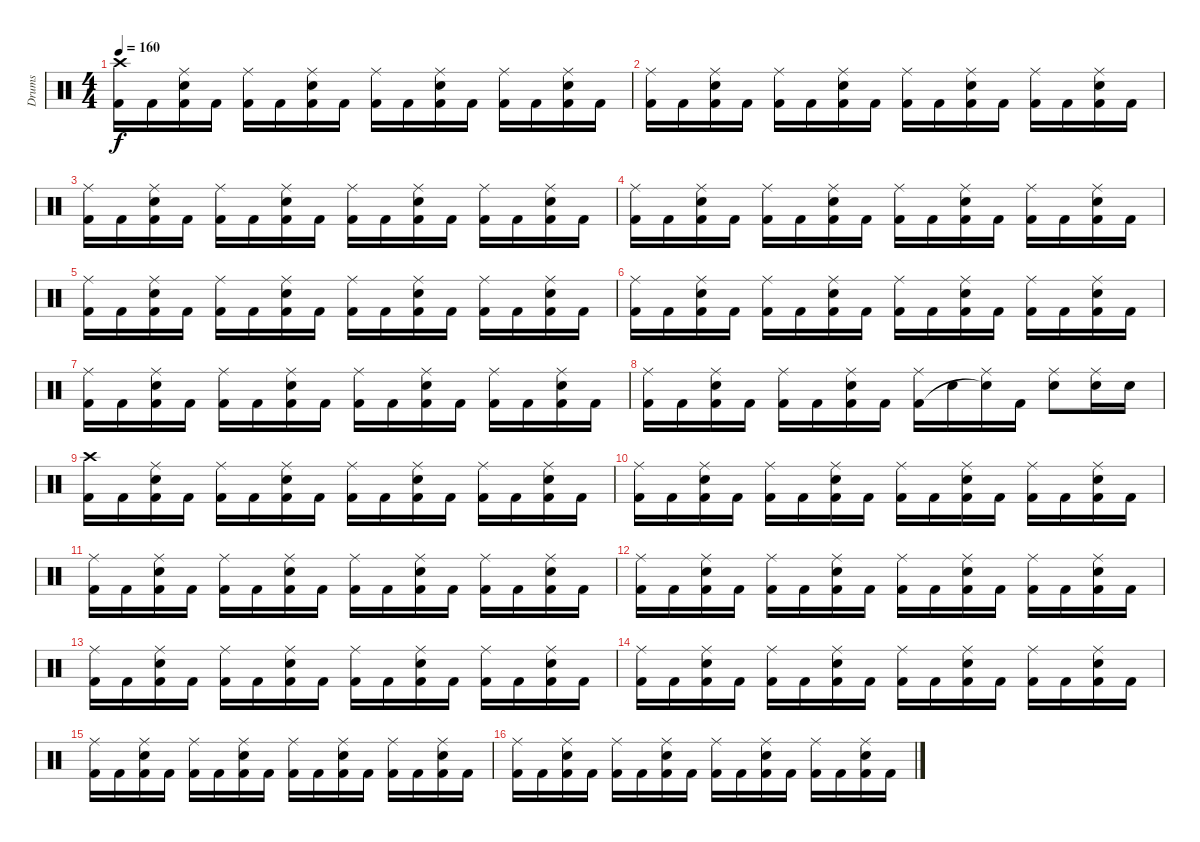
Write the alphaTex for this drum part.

\track ("Drums" "Drums") {instrument percussion}
\staff {score}
\articulation defaults
\ts (4 4)
\tempo 160
\clef neutral
\ks c
("Crash high (hit)" "Kick (hit) 2").16{dy f} "Kick (hit) 2".16 ("Ride (middle)" "Electric Snare (hit)" "Kick (hit) 2").16 "Kick (hit) 2".16 ("Ride (middle)" "Kick (hit) 2").16 "Kick (hit) 2".16 ("Ride (middle)" "Electric Snare (hit)" "Kick (hit) 2").16 "Kick (hit) 2".16 ("Ride (middle)" "Kick (hit) 2").16 "Kick (hit) 2".16 ("Ride (middle)" "Electric Snare (hit)" "Kick (hit) 2").16 "Kick (hit) 2".16 ("Ride (middle)" "Kick (hit) 2").16 "Kick (hit) 2".16 ("Ride (middle)" "Electric Snare (hit)" "Kick (hit) 2").16 "Kick (hit) 2".16 |
("Ride (middle)" "Kick (hit) 2").16 "Kick (hit) 2".16 ("Ride (middle)" "Electric Snare (hit)" "Kick (hit) 2").16 "Kick (hit) 2".16 ("Ride (middle)" "Kick (hit) 2").16 "Kick (hit) 2".16 ("Ride (middle)" "Electric Snare (hit)" "Kick (hit) 2").16 "Kick (hit) 2".16 ("Ride (middle)" "Kick (hit) 2").16 "Kick (hit) 2".16 ("Ride (middle)" "Electric Snare (hit)" "Kick (hit) 2").16 "Kick (hit) 2".16 ("Ride (middle)" "Kick (hit) 2").16 "Kick (hit) 2".16 ("Ride (middle)" "Electric Snare (hit)" "Kick (hit) 2").16 "Kick (hit) 2".16 |
("Ride (middle)" "Kick (hit) 2").16 "Kick (hit) 2".16 ("Ride (middle)" "Electric Snare (hit)" "Kick (hit) 2").16 "Kick (hit) 2".16 ("Ride (middle)" "Kick (hit) 2").16 "Kick (hit) 2".16 ("Ride (middle)" "Electric Snare (hit)" "Kick (hit) 2").16 "Kick (hit) 2".16 ("Ride (middle)" "Kick (hit) 2").16 "Kick (hit) 2".16 ("Ride (middle)" "Electric Snare (hit)" "Kick (hit) 2").16 "Kick (hit) 2".16 ("Ride (middle)" "Kick (hit) 2").16 "Kick (hit) 2".16 ("Ride (middle)" "Electric Snare (hit)" "Kick (hit) 2").16 "Kick (hit) 2".16 |
("Ride (middle)" "Kick (hit) 2").16 "Kick (hit) 2".16 ("Ride (middle)" "Electric Snare (hit)" "Kick (hit) 2").16 "Kick (hit) 2".16 ("Ride (middle)" "Kick (hit) 2").16 "Kick (hit) 2".16 ("Ride (middle)" "Electric Snare (hit)" "Kick (hit) 2").16 "Kick (hit) 2".16 ("Ride (middle)" "Kick (hit) 2").16 "Kick (hit) 2".16 ("Ride (middle)" "Electric Snare (hit)" "Kick (hit) 2").16 "Kick (hit) 2".16 ("Ride (middle)" "Kick (hit) 2").16 "Kick (hit) 2".16 ("Ride (middle)" "Electric Snare (hit)" "Kick (hit) 2").16 "Kick (hit) 2".16 |
("Ride (middle)" "Kick (hit) 2").16 "Kick (hit) 2".16 ("Ride (middle)" "Electric Snare (hit)" "Kick (hit) 2").16 "Kick (hit) 2".16 ("Ride (middle)" "Kick (hit) 2").16 "Kick (hit) 2".16 ("Ride (middle)" "Electric Snare (hit)" "Kick (hit) 2").16 "Kick (hit) 2".16 ("Ride (middle)" "Kick (hit) 2").16 "Kick (hit) 2".16 ("Ride (middle)" "Electric Snare (hit)" "Kick (hit) 2").16 "Kick (hit) 2".16 ("Ride (middle)" "Kick (hit) 2").16 "Kick (hit) 2".16 ("Ride (middle)" "Electric Snare (hit)" "Kick (hit) 2").16 "Kick (hit) 2".16 |
("Ride (middle)" "Kick (hit) 2").16 "Kick (hit) 2".16 ("Ride (middle)" "Electric Snare (hit)" "Kick (hit) 2").16 "Kick (hit) 2".16 ("Ride (middle)" "Kick (hit) 2").16 "Kick (hit) 2".16 ("Ride (middle)" "Electric Snare (hit)" "Kick (hit) 2").16 "Kick (hit) 2".16 ("Ride (middle)" "Kick (hit) 2").16 "Kick (hit) 2".16 ("Ride (middle)" "Electric Snare (hit)" "Kick (hit) 2").16 "Kick (hit) 2".16 ("Ride (middle)" "Kick (hit) 2").16 "Kick (hit) 2".16 ("Ride (middle)" "Electric Snare (hit)" "Kick (hit) 2").16 "Kick (hit) 2".16 |
("Ride (middle)" "Kick (hit) 2").16 "Kick (hit) 2".16 ("Ride (middle)" "Electric Snare (hit)" "Kick (hit) 2").16 "Kick (hit) 2".16 ("Ride (middle)" "Kick (hit) 2").16 "Kick (hit) 2".16 ("Ride (middle)" "Electric Snare (hit)" "Kick (hit) 2").16 "Kick (hit) 2".16 ("Ride (middle)" "Kick (hit) 2").16 "Kick (hit) 2".16 ("Ride (middle)" "Electric Snare (hit)" "Kick (hit) 2").16 "Kick (hit) 2".16 ("Ride (middle)" "Kick (hit) 2").16 "Kick (hit) 2".16 ("Ride (middle)" "Electric Snare (hit)" "Kick (hit) 2").16 "Kick (hit) 2".16 |
("Ride (middle)" "Kick (hit) 2").16 "Kick (hit) 2".16 ("Ride (middle)" "Electric Snare (hit)" "Kick (hit) 2").16 "Kick (hit) 2".16 ("Ride (middle)" "Kick (hit) 2").16 "Kick (hit) 2".16 ("Ride (middle)" "Electric Snare (hit)" "Kick (hit) 2").16 "Kick (hit) 2".16 ("Ride (middle)" "Kick (hit) 2").16 "Electric Snare (hit)".16 ("Ride (middle)" "Snare (hit)"{t}).16 "Kick (hit) 2".16 ("Ride (middle)" "Electric Snare (hit)").8 ("Ride (middle)" "Electric Snare (hit)").16 "Electric Snare (hit)".16 |
("Crash high (hit)" "Kick (hit) 2").16 "Kick (hit) 2".16 ("Ride (middle)" "Electric Snare (hit)" "Kick (hit) 2").16 "Kick (hit) 2".16 ("Ride (middle)" "Kick (hit) 2").16 "Kick (hit) 2".16 ("Ride (middle)" "Electric Snare (hit)" "Kick (hit) 2").16 "Kick (hit) 2".16 ("Ride (middle)" "Kick (hit) 2").16 "Kick (hit) 2".16 ("Ride (middle)" "Electric Snare (hit)" "Kick (hit) 2").16 "Kick (hit) 2".16 ("Ride (middle)" "Kick (hit) 2").16 "Kick (hit) 2".16 ("Ride (middle)" "Electric Snare (hit)" "Kick (hit) 2").16 "Kick (hit) 2".16 |
("Ride (middle)" "Kick (hit) 2").16 "Kick (hit) 2".16 ("Ride (middle)" "Electric Snare (hit)" "Kick (hit) 2").16 "Kick (hit) 2".16 ("Ride (middle)" "Kick (hit) 2").16 "Kick (hit) 2".16 ("Ride (middle)" "Electric Snare (hit)" "Kick (hit) 2").16 "Kick (hit) 2".16 ("Ride (middle)" "Kick (hit) 2").16 "Kick (hit) 2".16 ("Ride (middle)" "Electric Snare (hit)" "Kick (hit) 2").16 "Kick (hit) 2".16 ("Ride (middle)" "Kick (hit) 2").16 "Kick (hit) 2".16 ("Ride (middle)" "Electric Snare (hit)" "Kick (hit) 2").16 "Kick (hit) 2".16 |
("Ride (middle)" "Kick (hit) 2").16 "Kick (hit) 2".16 ("Ride (middle)" "Electric Snare (hit)" "Kick (hit) 2").16 "Kick (hit) 2".16 ("Ride (middle)" "Kick (hit) 2").16 "Kick (hit) 2".16 ("Ride (middle)" "Electric Snare (hit)" "Kick (hit) 2").16 "Kick (hit) 2".16 ("Ride (middle)" "Kick (hit) 2").16 "Kick (hit) 2".16 ("Ride (middle)" "Electric Snare (hit)" "Kick (hit) 2").16 "Kick (hit) 2".16 ("Ride (middle)" "Kick (hit) 2").16 "Kick (hit) 2".16 ("Ride (middle)" "Electric Snare (hit)" "Kick (hit) 2").16 "Kick (hit) 2".16 |
("Ride (middle)" "Kick (hit) 2").16 "Kick (hit) 2".16 ("Ride (middle)" "Electric Snare (hit)" "Kick (hit) 2").16 "Kick (hit) 2".16 ("Ride (middle)" "Kick (hit) 2").16 "Kick (hit) 2".16 ("Ride (middle)" "Electric Snare (hit)" "Kick (hit) 2").16 "Kick (hit) 2".16 ("Ride (middle)" "Kick (hit) 2").16 "Kick (hit) 2".16 ("Ride (middle)" "Electric Snare (hit)" "Kick (hit) 2").16 "Kick (hit) 2".16 ("Ride (middle)" "Kick (hit) 2").16 "Kick (hit) 2".16 ("Ride (middle)" "Electric Snare (hit)" "Kick (hit) 2").16 "Kick (hit) 2".16 |
("Ride (middle)" "Kick (hit) 2").16 "Kick (hit) 2".16 ("Ride (middle)" "Electric Snare (hit)" "Kick (hit) 2").16 "Kick (hit) 2".16 ("Ride (middle)" "Kick (hit) 2").16 "Kick (hit) 2".16 ("Ride (middle)" "Electric Snare (hit)" "Kick (hit) 2").16 "Kick (hit) 2".16 ("Ride (middle)" "Kick (hit) 2").16 "Kick (hit) 2".16 ("Ride (middle)" "Electric Snare (hit)" "Kick (hit) 2").16 "Kick (hit) 2".16 ("Ride (middle)" "Kick (hit) 2").16 "Kick (hit) 2".16 ("Ride (middle)" "Electric Snare (hit)" "Kick (hit) 2").16 "Kick (hit) 2".16 |
("Ride (middle)" "Kick (hit) 2").16 "Kick (hit) 2".16 ("Ride (middle)" "Electric Snare (hit)" "Kick (hit) 2").16 "Kick (hit) 2".16 ("Ride (middle)" "Kick (hit) 2").16 "Kick (hit) 2".16 ("Ride (middle)" "Electric Snare (hit)" "Kick (hit) 2").16 "Kick (hit) 2".16 ("Ride (middle)" "Kick (hit) 2").16 "Kick (hit) 2".16 ("Ride (middle)" "Electric Snare (hit)" "Kick (hit) 2").16 "Kick (hit) 2".16 ("Ride (middle)" "Kick (hit) 2").16 "Kick (hit) 2".16 ("Ride (middle)" "Electric Snare (hit)" "Kick (hit) 2").16 "Kick (hit) 2".16 |
("Ride (middle)" "Kick (hit) 2").16 "Kick (hit) 2".16 ("Ride (middle)" "Electric Snare (hit)" "Kick (hit) 2").16 "Kick (hit) 2".16 ("Ride (middle)" "Kick (hit) 2").16 "Kick (hit) 2".16 ("Ride (middle)" "Electric Snare (hit)" "Kick (hit) 2").16 "Kick (hit) 2".16 ("Ride (middle)" "Kick (hit) 2").16 "Kick (hit) 2".16 ("Ride (middle)" "Electric Snare (hit)" "Kick (hit) 2").16 "Kick (hit) 2".16 ("Ride (middle)" "Kick (hit) 2").16 "Kick (hit) 2".16 ("Ride (middle)" "Electric Snare (hit)" "Kick (hit) 2").16 "Kick (hit) 2".16 |
("Ride (middle)" "Kick (hit) 2").16 "Kick (hit) 2".16 ("Ride (middle)" "Electric Snare (hit)" "Kick (hit) 2").16 "Kick (hit) 2".16 ("Ride (middle)" "Kick (hit) 2").16 "Kick (hit) 2".16 ("Ride (middle)" "Electric Snare (hit)" "Kick (hit) 2").16 "Kick (hit) 2".16 ("Ride (middle)" "Kick (hit) 2").16 "Kick (hit) 2".16 ("Ride (middle)" "Electric Snare (hit)" "Kick (hit) 2").16 "Kick (hit) 2".16 ("Ride (middle)" "Kick (hit) 2").16 "Kick (hit) 2".16 ("Ride (middle)" "Electric Snare (hit)" "Kick (hit) 2").16 "Kick (hit) 2".16
